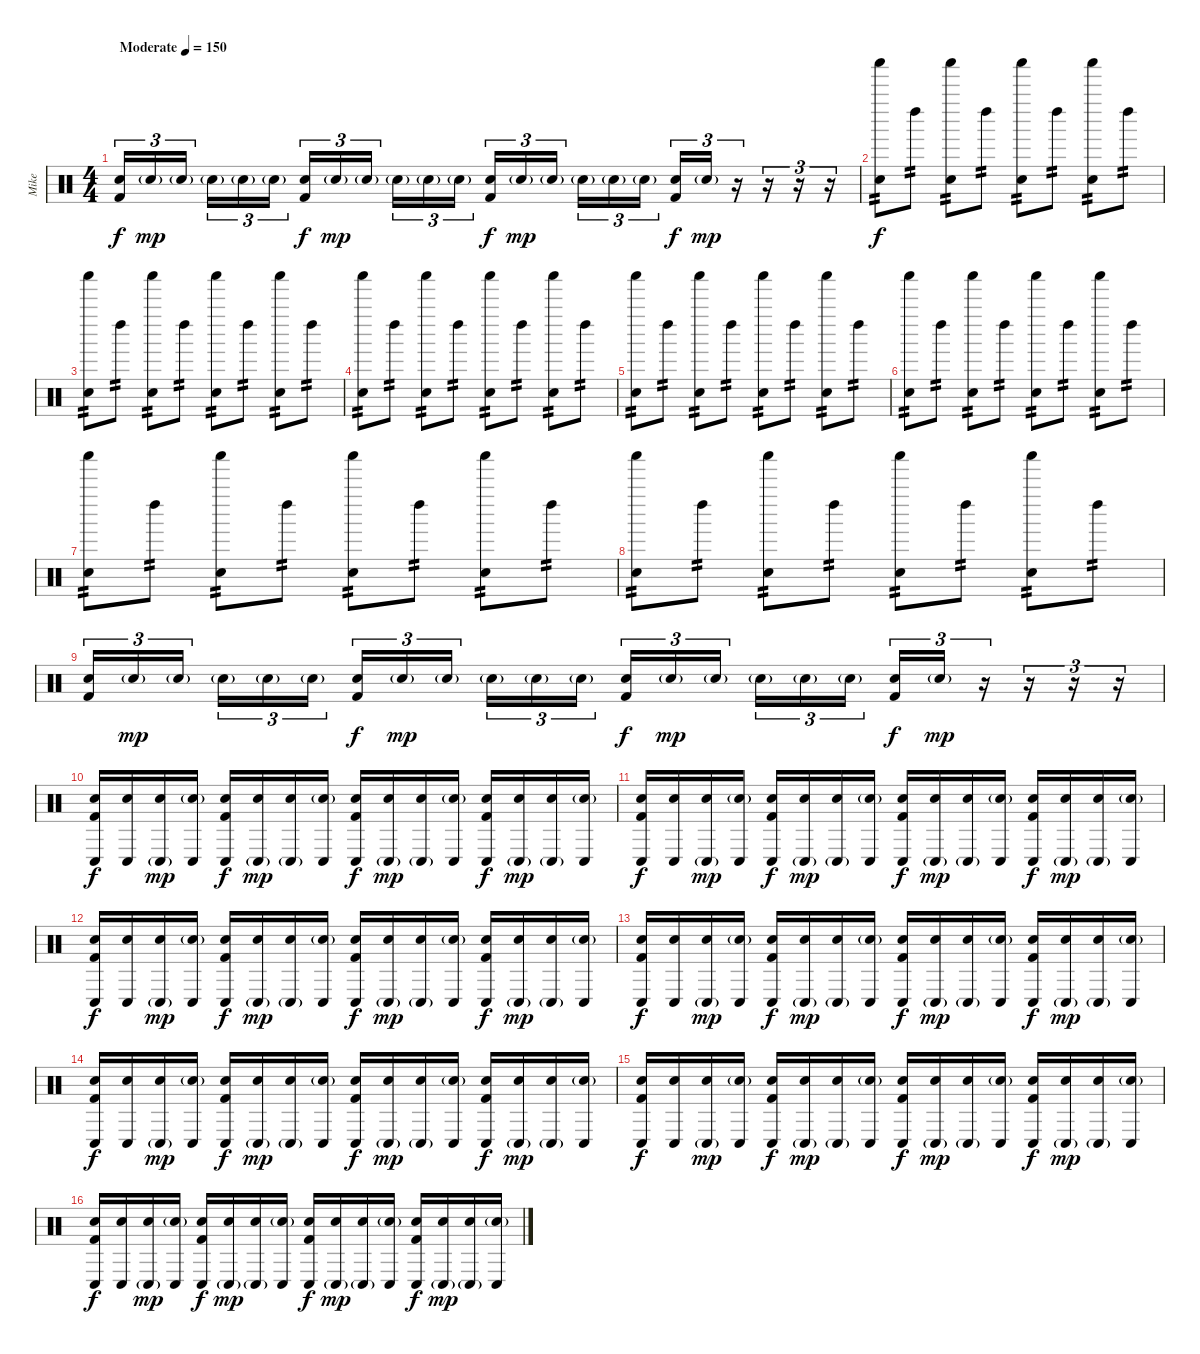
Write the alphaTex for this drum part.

\track ("Mike" "Mike") {instrument percussion}
\staff {score}
\articulation defaults
\ts (4 4)
\tempo (150 "Moderate")
\clef neutral
\ks c
("Electric Snare (hit)" "Kick (hit) 2").16{tu (3 2) dy f} "Electric Snare (hit)"{g}.16{tu (3 2) dy mp} "Electric Snare (hit)"{g}.16{tu (3 2) beam splitsecondary} "Electric Snare (hit)"{g}.16{tu (3 2)} "Electric Snare (hit)"{g}.16{tu (3 2)} "Electric Snare (hit)"{g}.16{tu (3 2)} ("Electric Snare (hit)" "Kick (hit) 2").16{tu (3 2) dy f} "Electric Snare (hit)"{g}.16{tu (3 2) dy mp} "Electric Snare (hit)"{g}.16{tu (3 2) beam splitsecondary} "Electric Snare (hit)"{g}.16{tu (3 2)} "Electric Snare (hit)"{g}.16{tu (3 2)} "Electric Snare (hit)"{g}.16{tu (3 2)} ("Electric Snare (hit)" "Kick (hit) 2").16{tu (3 2) dy f} "Electric Snare (hit)"{g}.16{tu (3 2) dy mp} "Electric Snare (hit)"{g}.16{tu (3 2) beam splitsecondary} "Electric Snare (hit)"{g}.16{tu (3 2)} "Electric Snare (hit)"{g}.16{tu (3 2)} "Electric Snare (hit)"{g}.16{tu (3 2)} ("Electric Snare (hit)" "Kick (hit) 2").16{tu (3 2) dy f} "Electric Snare (hit)"{g}.16{tu (3 2) dy mp} r.16{tu (3 2)} r.16{tu (3 2)} r.16{tu (3 2)} r.16{tu (3 2)} |
("Shaker (hit)" "Hand Clap (hit)").8{tp 2 dy f} "Left Maraca (hit)".8{tp 2} ("Shaker (hit)" "Hand Clap (hit)").8{tp 2} "Left Maraca (hit)".8{tp 2} ("Shaker (hit)" "Hand Clap (hit)").8{tp 2} "Left Maraca (hit)".8{tp 2} ("Shaker (hit)" "Hand Clap (hit)").8{tp 2} "Left Maraca (hit)".8{tp 2} |
("Shaker (hit)" "Hand Clap (hit)").8{tp 2} "Left Maraca (hit)".8{tp 2} ("Shaker (hit)" "Hand Clap (hit)").8{tp 2} "Left Maraca (hit)".8{tp 2} ("Shaker (hit)" "Hand Clap (hit)").8{tp 2} "Left Maraca (hit)".8{tp 2} ("Shaker (hit)" "Hand Clap (hit)").8{tp 2} "Left Maraca (hit)".8{tp 2} |
("Shaker (hit)" "Hand Clap (hit)").8{tp 2} "Left Maraca (hit)".8{tp 2} ("Shaker (hit)" "Hand Clap (hit)").8{tp 2} "Left Maraca (hit)".8{tp 2} ("Shaker (hit)" "Hand Clap (hit)").8{tp 2} "Left Maraca (hit)".8{tp 2} ("Shaker (hit)" "Hand Clap (hit)").8{tp 2} "Left Maraca (hit)".8{tp 2} |
("Shaker (hit)" "Hand Clap (hit)").8{tp 2} "Left Maraca (hit)".8{tp 2} ("Shaker (hit)" "Hand Clap (hit)").8{tp 2} "Left Maraca (hit)".8{tp 2} ("Shaker (hit)" "Hand Clap (hit)").8{tp 2} "Left Maraca (hit)".8{tp 2} ("Shaker (hit)" "Hand Clap (hit)").8{tp 2} "Left Maraca (hit)".8{tp 2} |
("Shaker (hit)" "Hand Clap (hit)").8{tp 2} "Left Maraca (hit)".8{tp 2} ("Shaker (hit)" "Hand Clap (hit)").8{tp 2} "Left Maraca (hit)".8{tp 2} ("Shaker (hit)" "Hand Clap (hit)").8{tp 2} "Left Maraca (hit)".8{tp 2} ("Shaker (hit)" "Hand Clap (hit)").8{tp 2} "Left Maraca (hit)".8{tp 2} |
("Shaker (hit)" "Hand Clap (hit)").8{tp 2} "Left Maraca (hit)".8{tp 2} ("Shaker (hit)" "Hand Clap (hit)").8{tp 2} "Left Maraca (hit)".8{tp 2} ("Shaker (hit)" "Hand Clap (hit)").8{tp 2} "Left Maraca (hit)".8{tp 2} ("Shaker (hit)" "Hand Clap (hit)").8{tp 2} "Left Maraca (hit)".8{tp 2} |
("Shaker (hit)" "Hand Clap (hit)").8{tp 2} "Left Maraca (hit)".8{tp 2} ("Shaker (hit)" "Hand Clap (hit)").8{tp 2} "Left Maraca (hit)".8{tp 2} ("Shaker (hit)" "Hand Clap (hit)").8{tp 2} "Left Maraca (hit)".8{tp 2} ("Shaker (hit)" "Hand Clap (hit)").8{tp 2} "Left Maraca (hit)".8{tp 2} |
("Electric Snare (hit)" "Kick (hit) 2").16{tu (3 2)} "Electric Snare (hit)"{g}.16{tu (3 2) dy mp} "Electric Snare (hit)"{g}.16{tu (3 2) beam splitsecondary} "Electric Snare (hit)"{g}.16{tu (3 2)} "Electric Snare (hit)"{g}.16{tu (3 2)} "Electric Snare (hit)"{g}.16{tu (3 2)} ("Electric Snare (hit)" "Kick (hit) 2").16{tu (3 2) dy f} "Electric Snare (hit)"{g}.16{tu (3 2) dy mp} "Electric Snare (hit)"{g}.16{tu (3 2) beam splitsecondary} "Electric Snare (hit)"{g}.16{tu (3 2)} "Electric Snare (hit)"{g}.16{tu (3 2)} "Electric Snare (hit)"{g}.16{tu (3 2)} ("Electric Snare (hit)" "Kick (hit) 2").16{tu (3 2) dy f} "Electric Snare (hit)"{g}.16{tu (3 2) dy mp} "Electric Snare (hit)"{g}.16{tu (3 2) beam splitsecondary} "Electric Snare (hit)"{g}.16{tu (3 2)} "Electric Snare (hit)"{g}.16{tu (3 2)} "Electric Snare (hit)"{g}.16{tu (3 2)} ("Electric Snare (hit)" "Kick (hit) 2").16{tu (3 2) dy f} "Electric Snare (hit)"{g}.16{tu (3 2) dy mp} r.16{tu (3 2)} r.16{tu (3 2)} r.16{tu (3 2)} r.16{tu (3 2)} |
("Conga low (hit)" "Electric Snare (hit)" "Kick (hit) 2").16{dy f} ("Conga low (hit)" "Electric Snare (hit)").16 ("Conga low (hit)"{g} "Electric Snare (hit)").16{dy mp} ("Conga low (hit)" "Electric Snare (hit)"{g}).16 ("Conga low (hit)" "Electric Snare (hit)" "Kick (hit) 2").16{dy f} ("Conga low (hit)"{g} "Electric Snare (hit)").16{dy mp} ("Conga low (hit)"{g} "Electric Snare (hit)").16 ("Conga low (hit)" "Electric Snare (hit)"{g}).16 ("Conga low (hit)" "Electric Snare (hit)" "Kick (hit) 2").16{dy f} ("Conga low (hit)"{g} "Electric Snare (hit)").16{dy mp} ("Conga low (hit)"{g} "Electric Snare (hit)").16 ("Conga low (hit)" "Electric Snare (hit)"{g}).16 ("Conga low (hit)" "Electric Snare (hit)" "Kick (hit) 2").16{dy f} ("Conga low (hit)"{g} "Electric Snare (hit)").16{dy mp} ("Conga low (hit)"{g} "Electric Snare (hit)").16 ("Conga low (hit)" "Electric Snare (hit)"{g}).16 |
("Conga low (hit)" "Electric Snare (hit)" "Kick (hit) 2").16{dy f} ("Conga low (hit)" "Electric Snare (hit)").16 ("Conga low (hit)"{g} "Electric Snare (hit)").16{dy mp} ("Conga low (hit)" "Electric Snare (hit)"{g}).16 ("Conga low (hit)" "Electric Snare (hit)" "Kick (hit) 2").16{dy f} ("Conga low (hit)"{g} "Electric Snare (hit)").16{dy mp} ("Conga low (hit)"{g} "Electric Snare (hit)").16 ("Conga low (hit)" "Electric Snare (hit)"{g}).16 ("Conga low (hit)" "Electric Snare (hit)" "Kick (hit) 2").16{dy f} ("Conga low (hit)"{g} "Electric Snare (hit)").16{dy mp} ("Conga low (hit)"{g} "Electric Snare (hit)").16 ("Conga low (hit)" "Electric Snare (hit)"{g}).16 ("Conga low (hit)" "Electric Snare (hit)" "Kick (hit) 2").16{dy f} ("Conga low (hit)"{g} "Electric Snare (hit)").16{dy mp} ("Conga low (hit)"{g} "Electric Snare (hit)").16 ("Conga low (hit)" "Electric Snare (hit)"{g}).16 |
("Conga low (hit)" "Electric Snare (hit)" "Kick (hit) 2").16{dy f} ("Conga low (hit)" "Electric Snare (hit)").16 ("Conga low (hit)"{g} "Electric Snare (hit)").16{dy mp} ("Conga low (hit)" "Electric Snare (hit)"{g}).16 ("Conga low (hit)" "Electric Snare (hit)" "Kick (hit) 2").16{dy f} ("Conga low (hit)"{g} "Electric Snare (hit)").16{dy mp} ("Conga low (hit)"{g} "Electric Snare (hit)").16 ("Conga low (hit)" "Electric Snare (hit)"{g}).16 ("Conga low (hit)" "Electric Snare (hit)" "Kick (hit) 2").16{dy f} ("Conga low (hit)"{g} "Electric Snare (hit)").16{dy mp} ("Conga low (hit)"{g} "Electric Snare (hit)").16 ("Conga low (hit)" "Electric Snare (hit)"{g}).16 ("Conga low (hit)" "Electric Snare (hit)" "Kick (hit) 2").16{dy f} ("Conga low (hit)"{g} "Electric Snare (hit)").16{dy mp} ("Conga low (hit)"{g} "Electric Snare (hit)").16 ("Conga low (hit)" "Electric Snare (hit)"{g}).16 |
("Conga low (hit)" "Electric Snare (hit)" "Kick (hit) 2").16{dy f} ("Conga low (hit)" "Electric Snare (hit)").16 ("Conga low (hit)"{g} "Electric Snare (hit)").16{dy mp} ("Conga low (hit)" "Electric Snare (hit)"{g}).16 ("Conga low (hit)" "Electric Snare (hit)" "Kick (hit) 2").16{dy f} ("Conga low (hit)"{g} "Electric Snare (hit)").16{dy mp} ("Conga low (hit)"{g} "Electric Snare (hit)").16 ("Conga low (hit)" "Electric Snare (hit)"{g}).16 ("Conga low (hit)" "Electric Snare (hit)" "Kick (hit) 2").16{dy f} ("Conga low (hit)"{g} "Electric Snare (hit)").16{dy mp} ("Conga low (hit)"{g} "Electric Snare (hit)").16 ("Conga low (hit)" "Electric Snare (hit)"{g}).16 ("Conga low (hit)" "Electric Snare (hit)" "Kick (hit) 2").16{dy f} ("Conga low (hit)"{g} "Electric Snare (hit)").16{dy mp} ("Conga low (hit)"{g} "Electric Snare (hit)").16 ("Conga low (hit)" "Electric Snare (hit)"{g}).16 |
("Conga low (hit)" "Electric Snare (hit)" "Kick (hit) 2").16{dy f} ("Conga low (hit)" "Electric Snare (hit)").16 ("Conga low (hit)"{g} "Electric Snare (hit)").16{dy mp} ("Conga low (hit)" "Electric Snare (hit)"{g}).16 ("Conga low (hit)" "Electric Snare (hit)" "Kick (hit) 2").16{dy f} ("Conga low (hit)"{g} "Electric Snare (hit)").16{dy mp} ("Conga low (hit)"{g} "Electric Snare (hit)").16 ("Conga low (hit)" "Electric Snare (hit)"{g}).16 ("Conga low (hit)" "Electric Snare (hit)" "Kick (hit) 2").16{dy f} ("Conga low (hit)"{g} "Electric Snare (hit)").16{dy mp} ("Conga low (hit)"{g} "Electric Snare (hit)").16 ("Conga low (hit)" "Electric Snare (hit)"{g}).16 ("Conga low (hit)" "Electric Snare (hit)" "Kick (hit) 2").16{dy f} ("Conga low (hit)"{g} "Electric Snare (hit)").16{dy mp} ("Conga low (hit)"{g} "Electric Snare (hit)").16 ("Conga low (hit)" "Electric Snare (hit)"{g}).16 |
("Conga low (hit)" "Electric Snare (hit)" "Kick (hit) 2").16{dy f} ("Conga low (hit)" "Electric Snare (hit)").16 ("Conga low (hit)"{g} "Electric Snare (hit)").16{dy mp} ("Conga low (hit)" "Electric Snare (hit)"{g}).16 ("Conga low (hit)" "Electric Snare (hit)" "Kick (hit) 2").16{dy f} ("Conga low (hit)"{g} "Electric Snare (hit)").16{dy mp} ("Conga low (hit)"{g} "Electric Snare (hit)").16 ("Conga low (hit)" "Electric Snare (hit)"{g}).16 ("Conga low (hit)" "Electric Snare (hit)" "Kick (hit) 2").16{dy f} ("Conga low (hit)"{g} "Electric Snare (hit)").16{dy mp} ("Conga low (hit)"{g} "Electric Snare (hit)").16 ("Conga low (hit)" "Electric Snare (hit)"{g}).16 ("Conga low (hit)" "Electric Snare (hit)" "Kick (hit) 2").16{dy f} ("Conga low (hit)"{g} "Electric Snare (hit)").16{dy mp} ("Conga low (hit)"{g} "Electric Snare (hit)").16 ("Conga low (hit)" "Electric Snare (hit)"{g}).16 |
("Conga low (hit)" "Electric Snare (hit)" "Kick (hit) 2").16{dy f} ("Conga low (hit)" "Electric Snare (hit)").16 ("Conga low (hit)"{g} "Electric Snare (hit)").16{dy mp} ("Conga low (hit)" "Electric Snare (hit)"{g}).16 ("Conga low (hit)" "Electric Snare (hit)" "Kick (hit) 2").16{dy f} ("Conga low (hit)"{g} "Electric Snare (hit)").16{dy mp} ("Conga low (hit)"{g} "Electric Snare (hit)").16 ("Conga low (hit)" "Electric Snare (hit)"{g}).16 ("Conga low (hit)" "Electric Snare (hit)" "Kick (hit) 2").16{dy f} ("Conga low (hit)"{g} "Electric Snare (hit)").16{dy mp} ("Conga low (hit)"{g} "Electric Snare (hit)").16 ("Conga low (hit)" "Electric Snare (hit)"{g}).16 ("Conga low (hit)" "Electric Snare (hit)" "Kick (hit) 2").16{dy f} ("Conga low (hit)"{g} "Electric Snare (hit)").16{dy mp} ("Conga low (hit)"{g} "Electric Snare (hit)").16 ("Conga low (hit)" "Electric Snare (hit)"{g}).16
